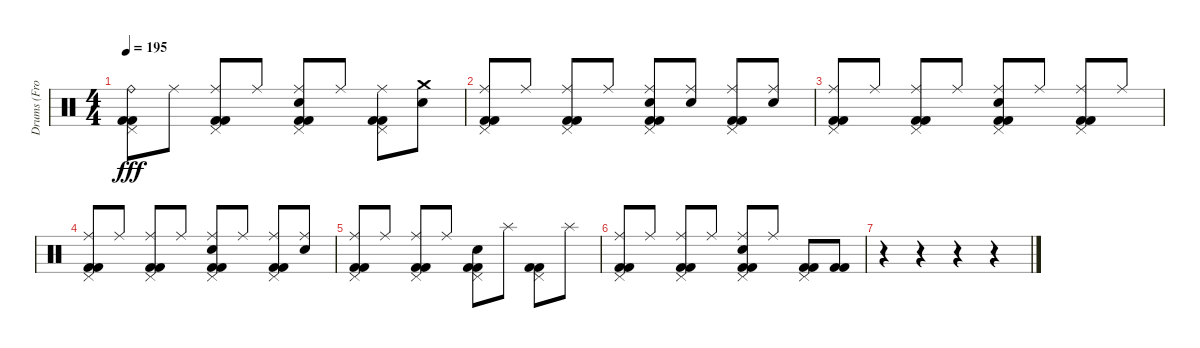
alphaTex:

\track ("Drums (From Other GP)" "Drums (Fro") {instrument percussion}
\staff {score}
\articulation defaults
\ts (4 4)
\tempo 195
\clef neutral
\ks c
("Ride (bell)" "Pedal Hi-Hat (hit)" "Kick (hit) 2" "Kick (hit) 2").8{dy fff} "Ride (middle)".8 ("Ride (middle)" "Pedal Hi-Hat (hit)" "Kick (hit) 2" "Kick (hit) 2").8 "Ride (middle)".8 ("Ride (middle)" "Electric Snare (hit)" "Pedal Hi-Hat (hit)" "Kick (hit) 2" "Kick (hit) 2").8 "Ride (middle)".8 ("Ride (middle)" "Pedal Hi-Hat (hit)" "Kick (hit) 2" "Kick (hit) 2").8 ("Crash medium (hit)" "Electric Snare (hit)").8 |
("Ride (middle)" "Pedal Hi-Hat (hit)" "Kick (hit) 2" "Kick (hit) 2").8 "Ride (middle)".8 ("Ride (middle)" "Pedal Hi-Hat (hit)" "Kick (hit) 2" "Kick (hit) 2").8 "Ride (middle)".8 ("Ride (middle)" "Electric Snare (hit)" "Pedal Hi-Hat (hit)" "Kick (hit) 2" "Kick (hit) 2").8 ("Ride (middle)" "Electric Snare (hit)").8 ("Ride (middle)" "Pedal Hi-Hat (hit)" "Kick (hit) 2" "Kick (hit) 2").8 ("Ride (middle)" "Electric Snare (hit)").8 |
("Ride (middle)" "Pedal Hi-Hat (hit)" "Kick (hit) 2" "Kick (hit) 2").8 "Ride (middle)".8 ("Ride (middle)" "Pedal Hi-Hat (hit)" "Kick (hit) 2" "Kick (hit) 2").8 "Ride (middle)".8 ("Ride (middle)" "Electric Snare (hit)" "Pedal Hi-Hat (hit)" "Kick (hit) 2" "Kick (hit) 2").8 "Ride (middle)".8 ("Ride (middle)" "Pedal Hi-Hat (hit)" "Kick (hit) 2" "Kick (hit) 2").8 "Ride (middle)".8 |
("Ride (middle)" "Pedal Hi-Hat (hit)" "Kick (hit) 2" "Kick (hit) 2").8 "Ride (middle)".8 ("Ride (middle)" "Pedal Hi-Hat (hit)" "Kick (hit) 2" "Kick (hit) 2").8 "Ride (middle)".8 ("Ride (middle)" "Electric Snare (hit)" "Pedal Hi-Hat (hit)" "Kick (hit) 2" "Kick (hit) 2").8 "Ride (middle)".8 ("Ride (middle)" "Pedal Hi-Hat (hit)" "Kick (hit) 2" "Kick (hit) 2").8 ("Ride (middle)" "Electric Snare (hit)").8 |
("Ride (middle)" "Pedal Hi-Hat (hit)" "Kick (hit) 2" "Kick (hit) 2").8 "Ride (middle)".8 ("Ride (middle)" "Pedal Hi-Hat (hit)" "Kick (hit) 2" "Kick (hit) 2").8 "Ride (middle)".8 ("Electric Snare (hit)" "Pedal Hi-Hat (hit)" "Kick (hit) 2" "Kick (hit) 2").8 "Splash (hit)".8 ("Pedal Hi-Hat (hit)" "Kick (hit) 2" "Kick (hit) 2").8 "Splash (hit)".8 |
("Ride (middle)" "Pedal Hi-Hat (hit)" "Kick (hit) 2" "Kick (hit) 2").8 "Ride (middle)".8 ("Ride (middle)" "Pedal Hi-Hat (hit)" "Kick (hit) 2" "Kick (hit) 2").8 "Ride (middle)".8 ("Ride (middle)" "Electric Snare (hit)" "Pedal Hi-Hat (hit)" "Kick (hit) 2" "Kick (hit) 2").8 "Ride (middle)".8 ("Pedal Hi-Hat (hit)" "Kick (hit) 2" "Kick (hit) 2").8 ("Kick (hit) 2" "Kick (hit) 2").8 |
r.4 r.4 r.4 r.4
